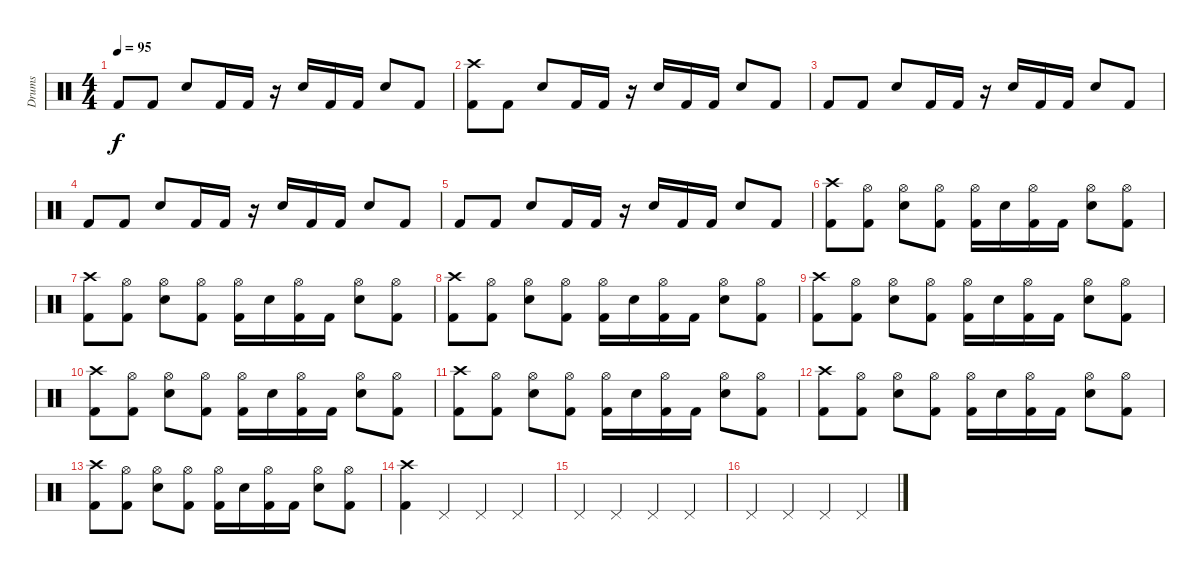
\track ("Drums" "Drums") {instrument percussion}
\staff {score}
\articulation defaults
\ts (4 4)
\tempo 95
\clef neutral
\ks c "Kick (hit) 2".8{dy f} "Kick (hit) 2".8 "Electric Snare (hit)".8 "Kick (hit) 2".16 "Kick (hit) 2".16
r.16 "Electric Snare (hit)".16 "Kick (hit) 2".16 "Kick (hit) 2".16 "Electric Snare (hit)".8 "Kick (hit) 2".8 |
("Crash high (hit)" "Kick (hit) 2").8 "Kick (hit) 2".8 "Electric Snare (hit)".8 "Kick (hit) 2".16 "Kick (hit) 2".16 r.16 "Electric Snare (hit)".16 "Kick (hit) 2".16 "Kick (hit) 2".16 "Electric Snare (hit)".8 "Kick (hit) 2".8 |
"Kick (hit) 2".8 "Kick (hit) 2".8 "Electric Snare (hit)".8 "Kick (hit) 2".16 "Kick (hit) 2".16 r.16 "Electric Snare (hit)".16 "Kick (hit) 2".16 "Kick (hit) 2".16 "Electric Snare (hit)".8 "Kick (hit) 2".8 |
"Kick (hit) 2".8 "Kick (hit) 2".8 "Electric Snare (hit)".8 "Kick (hit) 2".16 "Kick (hit) 2".16 r.16 "Electric Snare (hit)".16 "Kick (hit) 2".16 "Kick (hit) 2".16 "Electric Snare (hit)".8 "Kick (hit) 2".8 |
"Kick (hit) 2".8 "Kick (hit) 2".8 "Electric Snare (hit)".8 "Kick (hit) 2".16 "Kick (hit) 2".16 r.16 "Electric Snare (hit)".16 "Kick (hit) 2".16 "Kick (hit) 2".16 "Electric Snare (hit)".8 "Kick (hit) 2".8 |
("Crash high (hit)" "Kick (hit) 2").8 ("Hi-Hat (open)" "Kick (hit) 2").8 ("Hi-Hat (open)" "Electric Snare (hit)").8 ("Hi-Hat (open)" "Kick (hit) 2").8 ("Hi-Hat (open)" "Kick (hit) 2").16 "Electric Snare (hit)".16 ("Hi-Hat (open)" "Kick (hit) 2").16 "Kick (hit) 2".16 ("Hi-Hat (open)" "Electric Snare (hit)").8 ("Hi-Hat (open)" "Kick (hit) 2").8 |
("Crash high (hit)" "Kick (hit) 2").8 ("Hi-Hat (open)" "Kick (hit) 2").8 ("Hi-Hat (open)" "Electric Snare (hit)").8 ("Hi-Hat (open)" "Kick (hit) 2").8 ("Hi-Hat (open)" "Kick (hit) 2").16 "Electric Snare (hit)".16 ("Hi-Hat (open)" "Kick (hit) 2").16 "Kick (hit) 2".16 ("Hi-Hat (open)" "Electric Snare (hit)").8 ("Hi-Hat (open)" "Kick (hit) 2").8 |
("Crash high (hit)" "Kick (hit) 2").8 ("Hi-Hat (open)" "Kick (hit) 2").8 ("Hi-Hat (open)" "Electric Snare (hit)").8 ("Hi-Hat (open)" "Kick (hit) 2").8 ("Hi-Hat (open)" "Kick (hit) 2").16 "Electric Snare (hit)".16 ("Hi-Hat (open)" "Kick (hit) 2").16 "Kick (hit) 2".16 ("Hi-Hat (open)" "Electric Snare (hit)").8 ("Hi-Hat (open)" "Kick (hit) 2").8 |
("Crash high (hit)" "Kick (hit) 2").8 ("Hi-Hat (open)" "Kick (hit) 2").8 ("Hi-Hat (open)" "Electric Snare (hit)").8 ("Hi-Hat (open)" "Kick (hit) 2").8 ("Hi-Hat (open)" "Kick (hit) 2").16 "Electric Snare (hit)".16 ("Hi-Hat (open)" "Kick (hit) 2").16 "Kick (hit) 2".16 ("Hi-Hat (open)" "Electric Snare (hit)").8 ("Hi-Hat (open)" "Kick (hit) 2").8 |
("Crash high (hit)" "Kick (hit) 2").8 ("Hi-Hat (open)" "Kick (hit) 2").8 ("Hi-Hat (open)" "Electric Snare (hit)").8 ("Hi-Hat (open)" "Kick (hit) 2").8 ("Hi-Hat (open)" "Kick (hit) 2").16 "Electric Snare (hit)".16 ("Hi-Hat (open)" "Kick (hit) 2").16 "Kick (hit) 2".16 ("Hi-Hat (open)" "Electric Snare (hit)").8 ("Hi-Hat (open)" "Kick (hit) 2").8 |
("Crash high (hit)" "Kick (hit) 2").8 ("Hi-Hat (open)" "Kick (hit) 2").8 ("Hi-Hat (open)" "Electric Snare (hit)").8 ("Hi-Hat (open)" "Kick (hit) 2").8 ("Hi-Hat (open)" "Kick (hit) 2").16 "Electric Snare (hit)".16 ("Hi-Hat (open)" "Kick (hit) 2").16 "Kick (hit) 2".16 ("Hi-Hat (open)" "Electric Snare (hit)").8 ("Hi-Hat (open)" "Kick (hit) 2").8 |
("Crash high (hit)" "Kick (hit) 2").8 ("Hi-Hat (open)" "Kick (hit) 2").8 ("Hi-Hat (open)" "Electric Snare (hit)").8 ("Hi-Hat (open)" "Kick (hit) 2").8 ("Hi-Hat (open)" "Kick (hit) 2").16 "Electric Snare (hit)".16 ("Hi-Hat (open)" "Kick (hit) 2").16 "Kick (hit) 2".16 ("Hi-Hat (open)" "Electric Snare (hit)").8 ("Hi-Hat (open)" "Kick (hit) 2").8 |
("Crash high (hit)" "Kick (hit) 2").8 ("Hi-Hat (open)" "Kick (hit) 2").8 ("Hi-Hat (open)" "Electric Snare (hit)").8 ("Hi-Hat (open)" "Kick (hit) 2").8 ("Hi-Hat (open)" "Kick (hit) 2").16 "Electric Snare (hit)".16 ("Hi-Hat (open)" "Kick (hit) 2").16 "Kick (hit) 2".16 ("Hi-Hat (open)" "Electric Snare (hit)").8 ("Hi-Hat (open)" "Kick (hit) 2").8 |
("Crash high (hit)" "Kick (hit) 2").4 "Pedal Hi-Hat (hit)".4 "Pedal Hi-Hat (hit)".4 "Pedal Hi-Hat (hit)".4 |
"Pedal Hi-Hat (hit)".4 "Pedal Hi-Hat (hit)".4 "Pedal Hi-Hat (hit)".4 "Pedal Hi-Hat (hit)".4 |
"Pedal Hi-Hat (hit)".4 "Pedal Hi-Hat (hit)".4 "Pedal Hi-Hat (hit)".4 "Pedal Hi-Hat (hit)".4
